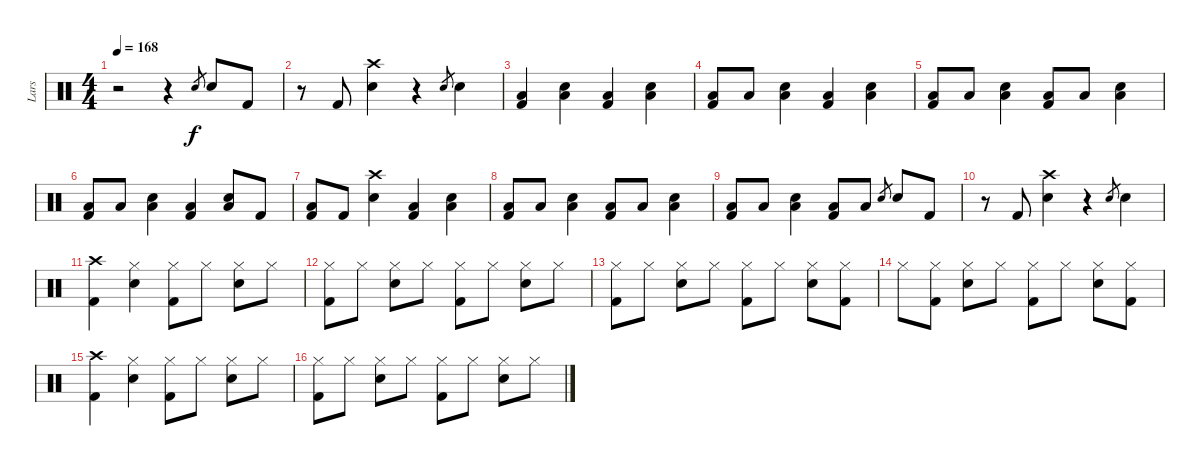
\track ("Lars" "Lars") {instrument percussion}
\staff {score}
\articulation defaults
\ts (4 4)
\tempo 168
\clef neutral
\ks c
r.2{dy f} r.4 "Snare (hit) 2".8{gr} "Snare (hit) 2".8 "Kick (hit) 2".8 |
r.8 "Kick (hit) 2".8 ("Crash high (hit)" "Snare (hit) 2").4 r.4 "Snare (hit) 2".8{gr} "Snare (hit) 2".4 |
("Low Floor Tom (hit)" "Kick (hit) 2").4 ("Snare (hit) 2" "Low Floor Tom (hit)").4 ("Low Floor Tom (hit)" "Kick (hit) 2").4 ("Snare (hit) 2" "Low Floor Tom (hit)").4 |
("Low Floor Tom (hit)" "Kick (hit) 2").8 "Low Floor Tom (hit)".8 ("Snare (hit) 2" "Low Floor Tom (hit)").4 ("Low Floor Tom (hit)" "Kick (hit) 2").4 ("Snare (hit) 2" "Low Floor Tom (hit)").4 |
("Low Floor Tom (hit)" "Kick (hit) 2").8 "Low Floor Tom (hit)".8 ("Snare (hit) 2" "Low Floor Tom (hit)").4 ("Low Floor Tom (hit)" "Kick (hit) 2").8 "Low Floor Tom (hit)".8 ("Snare (hit) 2" "Low Floor Tom (hit)").4 |
("Low Floor Tom (hit)" "Kick (hit) 2").8 "Low Floor Tom (hit)".8 ("Snare (hit) 2" "Low Floor Tom (hit)").4 ("Low Floor Tom (hit)" "Kick (hit) 2").4 ("Snare (hit) 2" "Low Floor Tom (hit)").8 "Kick (hit) 2".8 |
("Low Floor Tom (hit)" "Kick (hit) 2").8 "Kick (hit) 2".8 ("Crash high (hit)" "Snare (hit) 2").4 ("Low Floor Tom (hit)" "Kick (hit) 2").4 ("Snare (hit) 2" "Low Floor Tom (hit)").4 |
("Low Floor Tom (hit)" "Kick (hit) 2").8 "Low Floor Tom (hit)".8 ("Snare (hit) 2" "Low Floor Tom (hit)").4 ("Low Floor Tom (hit)" "Kick (hit) 2").8 "Low Floor Tom (hit)".8 ("Snare (hit) 2" "Low Floor Tom (hit)").4 |
("Low Floor Tom (hit)" "Kick (hit) 2").8 "Low Floor Tom (hit)".8 ("Snare (hit) 2" "Low Floor Tom (hit)").4 ("Low Floor Tom (hit)" "Kick (hit) 2").8 "Low Floor Tom (hit)".8 "Snare (hit) 2".8{gr} "Snare (hit) 2".8 "Kick (hit) 2".8 |
r.8 "Kick (hit) 2".8 ("Crash high (hit)" "Snare (hit) 2").4 r.4 "Snare (hit) 2".8{gr} "Snare (hit) 2".4 |
("Crash high (hit)" "Kick (hit) 2").4 ("Hi-Hat (closed)" "Snare (hit) 2").4 ("Hi-Hat (closed)" "Kick (hit) 2").8 "Hi-Hat (closed)".8 ("Hi-Hat (closed)" "Snare (hit) 2").8 "Hi-Hat (closed)".8 |
("Hi-Hat (closed)" "Kick (hit) 2").8 "Hi-Hat (closed)".8 ("Hi-Hat (closed)" "Snare (hit) 2").8 "Hi-Hat (closed)".8 ("Hi-Hat (closed)" "Kick (hit) 2").8 "Hi-Hat (closed)".8 ("Hi-Hat (closed)" "Snare (hit) 2").8 "Hi-Hat (closed)".8 |
("Hi-Hat (closed)" "Kick (hit) 2").8 "Hi-Hat (closed)".8 ("Hi-Hat (closed)" "Snare (hit) 2").8 "Hi-Hat (closed)".8 ("Hi-Hat (closed)" "Kick (hit) 2").8 "Hi-Hat (closed)".8 ("Hi-Hat (closed)" "Snare (hit) 2").8 ("Hi-Hat (closed)" "Kick (hit) 2").8 |
"Hi-Hat (closed)".8 ("Hi-Hat (closed)" "Kick (hit) 2").8 ("Hi-Hat (closed)" "Snare (hit) 2").8 "Hi-Hat (closed)".8 ("Hi-Hat (closed)" "Kick (hit) 2").8 "Hi-Hat (closed)".8 ("Hi-Hat (closed)" "Snare (hit) 2").8 ("Hi-Hat (closed)" "Kick (hit) 2").8 |
("Crash high (hit)" "Kick (hit) 2").4 ("Hi-Hat (closed)" "Snare (hit) 2").4 ("Hi-Hat (closed)" "Kick (hit) 2").8 "Hi-Hat (closed)".8 ("Hi-Hat (closed)" "Snare (hit) 2").8 "Hi-Hat (closed)".8 |
("Hi-Hat (closed)" "Kick (hit) 2").8 "Hi-Hat (closed)".8 ("Hi-Hat (closed)" "Snare (hit) 2").8 "Hi-Hat (closed)".8 ("Hi-Hat (closed)" "Kick (hit) 2").8 "Hi-Hat (closed)".8 ("Hi-Hat (closed)" "Snare (hit) 2").8 "Hi-Hat (closed)".8
